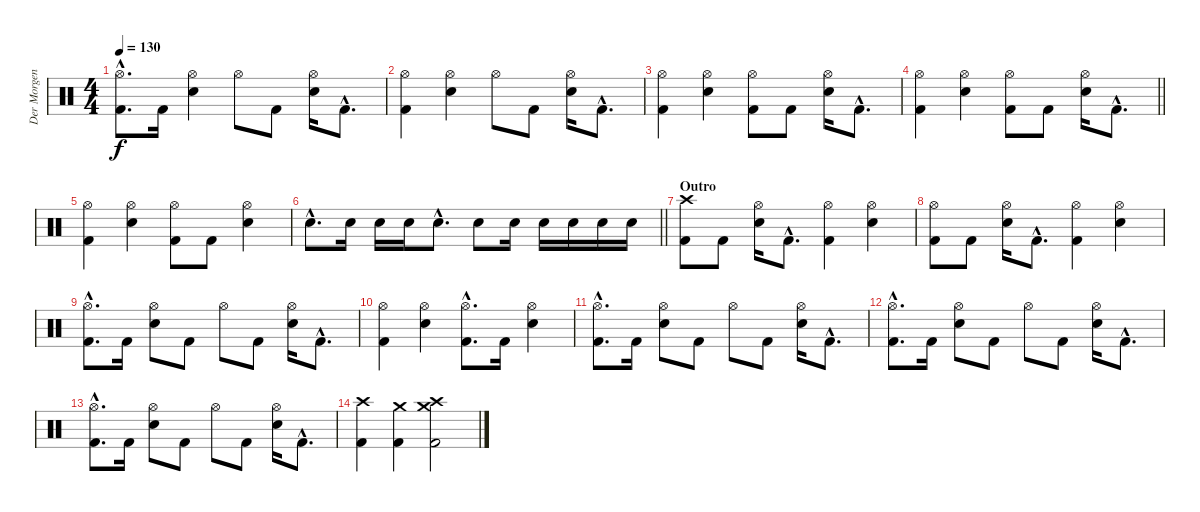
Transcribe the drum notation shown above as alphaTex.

\track ("Der Morgenstern" "Der Morgen") {instrument percussion}
\staff {score}
\articulation defaults
\ts (4 4)
\tempo 130
\clef neutral
\ks c
("Hi-Hat (open)"{hac} "Kick (hit) 2"{hac}).8{d dy f} "Kick (hit) 2".16 ("Hi-Hat (open)" "Electric Snare (hit)").4 "Hi-Hat (open)".8 "Kick (hit) 2".8 ("Hi-Hat (open)" "Electric Snare (hit)").16 "Kick (hit) 2"{hac}.8{d} |
("Hi-Hat (open)" "Kick (hit) 2").4 ("Hi-Hat (open)" "Electric Snare (hit)").4 "Hi-Hat (open)".8 "Kick (hit) 2".8 ("Hi-Hat (open)" "Electric Snare (hit)").16 "Kick (hit) 2"{hac}.8{d} |
("Hi-Hat (open)" "Kick (hit) 2").4 ("Hi-Hat (open)" "Electric Snare (hit)").4 ("Hi-Hat (open)" "Kick (hit) 2").8 "Kick (hit) 2".8 ("Hi-Hat (open)" "Electric Snare (hit)").16 "Kick (hit) 2"{hac}.8{d} |
\barLineRight lightlight
("Hi-Hat (open)" "Kick (hit) 2").4 ("Hi-Hat (open)" "Electric Snare (hit)").4 ("Hi-Hat (open)" "Kick (hit) 2").8 "Kick (hit) 2".8 ("Hi-Hat (open)" "Electric Snare (hit)").16 "Kick (hit) 2"{hac}.8{d} |
("Hi-Hat (open)" "Kick (hit) 2").4 ("Hi-Hat (open)" "Electric Snare (hit)").4 ("Hi-Hat (open)" "Kick (hit) 2").8 "Kick (hit) 2".8 ("Hi-Hat (open)" "Electric Snare (hit)").4 |
\barLineRight lightlight "Electric Snare (hit)"{hac}.8{d} "Electric Snare (hit)".16 "Electric Snare (hit)".16 "Electric Snare (hit)".16 "Electric Snare (hit)"{hac}.8{d} "Electric Snare (hit)".8 "Electric Snare (hit)".16 "Electric Snare (hit)".16 "Electric Snare (hit)".16 "Electric Snare (hit)".16 "Electric Snare (hit)".16
|
\section ("" "Outro")
("Crash high (hit)" "Kick (hit) 2").8 "Kick (hit) 2".8 ("Hi-Hat (open)" "Electric Snare (hit)").16 "Kick (hit) 2"{hac}.8{d} ("Hi-Hat (open)" "Kick (hit) 2").4 ("Hi-Hat (open)" "Electric Snare (hit)").4 |
("Hi-Hat (open)" "Kick (hit) 2").8 "Kick (hit) 2".8 ("Hi-Hat (open)" "Electric Snare (hit)").16 "Kick (hit) 2"{hac}.8{d} ("Hi-Hat (open)" "Kick (hit) 2").4 ("Hi-Hat (open)" "Electric Snare (hit)").4 |
("Hi-Hat (open)"{hac} "Kick (hit) 2"{hac}).8{d} "Kick (hit) 2".16 ("Hi-Hat (open)" "Electric Snare (hit)").8 "Kick (hit) 2".8 "Hi-Hat (open)".8 "Kick (hit) 2".8 ("Hi-Hat (open)" "Electric Snare (hit)").16 "Kick (hit) 2"{hac}.8{d} |
("Hi-Hat (open)" "Kick (hit) 2").4 ("Hi-Hat (open)" "Electric Snare (hit)").4 ("Hi-Hat (open)"{hac} "Kick (hit) 2"{hac}).8{d} "Kick (hit) 2".16 ("Hi-Hat (open)" "Electric Snare (hit)").4 |
("Hi-Hat (open)"{hac} "Kick (hit) 2"{hac}).8{d} "Kick (hit) 2".16 ("Hi-Hat (open)" "Electric Snare (hit)").8 "Kick (hit) 2".8 "Hi-Hat (open)".8 "Kick (hit) 2".8 ("Hi-Hat (open)" "Electric Snare (hit)").16 "Kick (hit) 2"{hac}.8{d} |
("Hi-Hat (open)"{hac} "Kick (hit) 2"{hac}).8{d} "Kick (hit) 2".16 ("Hi-Hat (open)" "Electric Snare (hit)").8 "Kick (hit) 2".8 "Hi-Hat (open)".8 "Kick (hit) 2".8 ("Hi-Hat (open)" "Electric Snare (hit)").16 "Kick (hit) 2"{hac}.8{d} |
("Hi-Hat (open)"{hac} "Kick (hit) 2"{hac}).8{d} "Kick (hit) 2".16 ("Hi-Hat (open)" "Electric Snare (hit)").8 "Kick (hit) 2".8 "Hi-Hat (open)".8 "Kick (hit) 2".8 ("Hi-Hat (open)" "Electric Snare (hit)").16 "Kick (hit) 2"{hac}.8{d} |
("Crash high (hit)" "Kick (hit) 2").4 ("Crash medium (hit)" "Kick (hit) 2").4 ("Crash high (hit)" "Crash medium (hit)" "Kick (hit) 2").2
